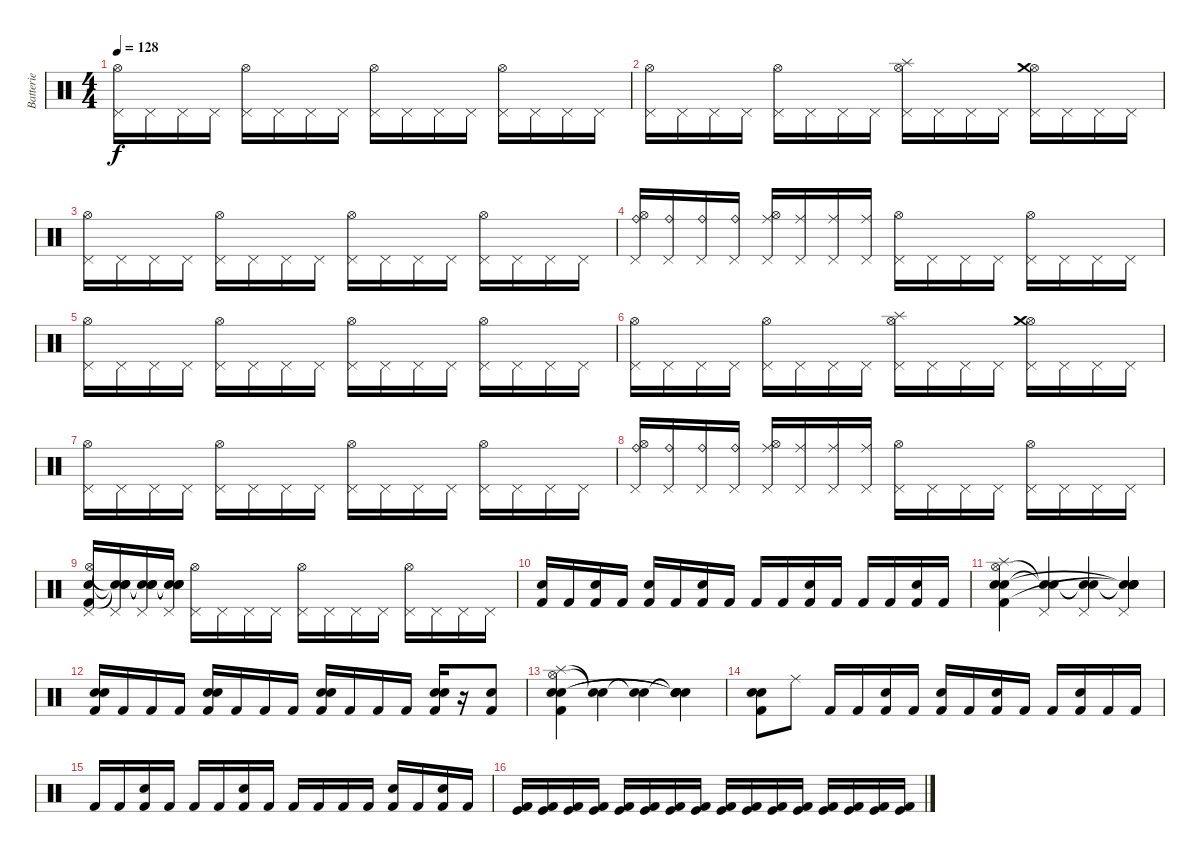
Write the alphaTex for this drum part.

\track ("Batterie" "Batterie") {instrument percussion}
\staff {score}
\articulation defaults
\ts (4 4)
\tempo 128
\clef neutral
\ks c
("Pedal Hi-Hat (hit)" "Hi-Hat (open)").16{dy f} "Pedal Hi-Hat (hit)".16 "Pedal Hi-Hat (hit)".16 "Pedal Hi-Hat (hit)".16 ("Pedal Hi-Hat (hit)" "Hi-Hat (open)").16 "Pedal Hi-Hat (hit)".16 "Pedal Hi-Hat (hit)".16 "Pedal Hi-Hat (hit)".16 ("Pedal Hi-Hat (hit)" "Hi-Hat (open)").16 "Pedal Hi-Hat (hit)".16 "Pedal Hi-Hat (hit)".16 "Pedal Hi-Hat (hit)".16 ("Pedal Hi-Hat (hit)" "Hi-Hat (open)").16 "Pedal Hi-Hat (hit)".16 "Pedal Hi-Hat (hit)".16 "Pedal Hi-Hat (hit)".16 |
("Pedal Hi-Hat (hit)" "Hi-Hat (open)").16 "Pedal Hi-Hat (hit)".16 "Pedal Hi-Hat (hit)".16 "Pedal Hi-Hat (hit)".16 ("Pedal Hi-Hat (hit)" "Hi-Hat (open)").16 "Pedal Hi-Hat (hit)".16 "Pedal Hi-Hat (hit)".16 "Pedal Hi-Hat (hit)".16 ("Pedal Hi-Hat (hit)" "Hi-Hat (open)" "Splash (hit)").16 "Pedal Hi-Hat (hit)".16 "Pedal Hi-Hat (hit)".16 "Pedal Hi-Hat (hit)".16 ("Pedal Hi-Hat (hit)" "Hi-Hat (open)" "Crash medium (hit)").16 "Pedal Hi-Hat (hit)".16 "Pedal Hi-Hat (hit)".16 "Pedal Hi-Hat (hit)".16 |
("Pedal Hi-Hat (hit)" "Hi-Hat (open)").16 "Pedal Hi-Hat (hit)".16 "Pedal Hi-Hat (hit)".16 "Pedal Hi-Hat (hit)".16 ("Pedal Hi-Hat (hit)" "Hi-Hat (open)").16 "Pedal Hi-Hat (hit)".16 "Pedal Hi-Hat (hit)".16 "Pedal Hi-Hat (hit)".16 ("Pedal Hi-Hat (hit)" "Hi-Hat (open)").16 "Pedal Hi-Hat (hit)".16 "Pedal Hi-Hat (hit)".16 "Pedal Hi-Hat (hit)".16 ("Pedal Hi-Hat (hit)" "Hi-Hat (open)").16 "Pedal Hi-Hat (hit)".16 "Pedal Hi-Hat (hit)".16 "Pedal Hi-Hat (hit)".16 |
("Ride (bell)" "Pedal Hi-Hat (hit)" "Hi-Hat (open)").16 ("Ride (bell)" "Pedal Hi-Hat (hit)").16 ("Ride (bell)" "Pedal Hi-Hat (hit)").16 ("Ride (bell)" "Pedal Hi-Hat (hit)").16 ("Ride (middle)" "Pedal Hi-Hat (hit)" "Hi-Hat (open)").16 ("Ride (middle)" "Pedal Hi-Hat (hit)").16 ("Ride (middle)" "Pedal Hi-Hat (hit)").16 ("Ride (middle)" "Pedal Hi-Hat (hit)").16 ("Pedal Hi-Hat (hit)" "Hi-Hat (open)").16 "Pedal Hi-Hat (hit)".16 "Pedal Hi-Hat (hit)".16 "Pedal Hi-Hat (hit)".16 ("Pedal Hi-Hat (hit)" "Hi-Hat (open)").16 "Pedal Hi-Hat (hit)".16 "Pedal Hi-Hat (hit)".16 "Pedal Hi-Hat (hit)".16 |
("Pedal Hi-Hat (hit)" "Hi-Hat (open)").16 "Pedal Hi-Hat (hit)".16 "Pedal Hi-Hat (hit)".16 "Pedal Hi-Hat (hit)".16 ("Pedal Hi-Hat (hit)" "Hi-Hat (open)").16 "Pedal Hi-Hat (hit)".16 "Pedal Hi-Hat (hit)".16 "Pedal Hi-Hat (hit)".16 ("Pedal Hi-Hat (hit)" "Hi-Hat (open)").16 "Pedal Hi-Hat (hit)".16 "Pedal Hi-Hat (hit)".16 "Pedal Hi-Hat (hit)".16 ("Pedal Hi-Hat (hit)" "Hi-Hat (open)").16 "Pedal Hi-Hat (hit)".16 "Pedal Hi-Hat (hit)".16 "Pedal Hi-Hat (hit)".16 |
("Pedal Hi-Hat (hit)" "Hi-Hat (open)").16 "Pedal Hi-Hat (hit)".16 "Pedal Hi-Hat (hit)".16 "Pedal Hi-Hat (hit)".16 ("Pedal Hi-Hat (hit)" "Hi-Hat (open)").16 "Pedal Hi-Hat (hit)".16 "Pedal Hi-Hat (hit)".16 "Pedal Hi-Hat (hit)".16 ("Pedal Hi-Hat (hit)" "Hi-Hat (open)" "Splash (hit)").16 "Pedal Hi-Hat (hit)".16 "Pedal Hi-Hat (hit)".16 "Pedal Hi-Hat (hit)".16 ("Pedal Hi-Hat (hit)" "Hi-Hat (open)" "Crash medium (hit)").16 "Pedal Hi-Hat (hit)".16 "Pedal Hi-Hat (hit)".16 "Pedal Hi-Hat (hit)".16 |
("Pedal Hi-Hat (hit)" "Hi-Hat (open)").16 "Pedal Hi-Hat (hit)".16 "Pedal Hi-Hat (hit)".16 "Pedal Hi-Hat (hit)".16 ("Pedal Hi-Hat (hit)" "Hi-Hat (open)").16 "Pedal Hi-Hat (hit)".16 "Pedal Hi-Hat (hit)".16 "Pedal Hi-Hat (hit)".16 ("Pedal Hi-Hat (hit)" "Hi-Hat (open)").16 "Pedal Hi-Hat (hit)".16 "Pedal Hi-Hat (hit)".16 "Pedal Hi-Hat (hit)".16 ("Pedal Hi-Hat (hit)" "Hi-Hat (open)").16 "Pedal Hi-Hat (hit)".16 "Pedal Hi-Hat (hit)".16 "Pedal Hi-Hat (hit)".16 |
("Ride (bell)" "Pedal Hi-Hat (hit)" "Hi-Hat (open)").16 ("Ride (bell)" "Pedal Hi-Hat (hit)").16 ("Ride (bell)" "Pedal Hi-Hat (hit)").16 ("Ride (bell)" "Pedal Hi-Hat (hit)").16 ("Ride (middle)" "Pedal Hi-Hat (hit)" "Hi-Hat (open)").16 ("Ride (middle)" "Pedal Hi-Hat (hit)").16 ("Ride (middle)" "Pedal Hi-Hat (hit)").16 ("Ride (middle)" "Pedal Hi-Hat (hit)").16 ("Pedal Hi-Hat (hit)" "Hi-Hat (open)").16 "Pedal Hi-Hat (hit)".16 "Pedal Hi-Hat (hit)".16 "Pedal Hi-Hat (hit)".16 ("Pedal Hi-Hat (hit)" "Hi-Hat (open)").16 "Pedal Hi-Hat (hit)".16 "Pedal Hi-Hat (hit)".16 "Pedal Hi-Hat (hit)".16 |
("Pedal Hi-Hat (hit)" "Hi-Hat (open)" "Snare (hit) 2" "Kick (hit) 2").16 ("Pedal Hi-Hat (hit)" "Snare (hit)"{t} "Snare (hit)"{t} "Snare (hit)"{t}).16 ("Pedal Hi-Hat (hit)" "Snare (hit)"{t} "Snare (hit)"{t} "Snare (hit)"{t}).16 ("Pedal Hi-Hat (hit)" "Snare (hit)"{t} "Snare (hit)"{t} "Snare (hit)"{t}).16 ("Pedal Hi-Hat (hit)" "Hi-Hat (open)").16 "Pedal Hi-Hat (hit)".16 "Pedal Hi-Hat (hit)".16 "Pedal Hi-Hat (hit)".16 ("Pedal Hi-Hat (hit)" "Hi-Hat (open)").16 "Pedal Hi-Hat (hit)".16 "Pedal Hi-Hat (hit)".16 "Pedal Hi-Hat (hit)".16 ("Pedal Hi-Hat (hit)" "Hi-Hat (open)").16 "Pedal Hi-Hat (hit)".16 "Pedal Hi-Hat (hit)".16 "Pedal Hi-Hat (hit)".16 |
("Electric Snare (hit)" "Kick (hit) 2").16 "Kick (hit) 2".16 ("Electric Snare (hit)" "Kick (hit) 2").16 "Kick (hit) 2".16 ("Electric Snare (hit)" "Kick (hit) 2").16 "Kick (hit) 2".16 ("Electric Snare (hit)" "Kick (hit) 2").16 "Kick (hit) 2".16 "Kick (hit) 2".16 "Kick (hit) 2".16 ("Electric Snare (hit)" "Kick (hit) 2").16 "Kick (hit) 2".16 "Kick (hit) 2".16 "Kick (hit) 2".16 ("Electric Snare (hit)" "Kick (hit) 2").16 "Kick (hit) 2".16 |
("Splash (hit)" "Hi-Hat (open)" "Snare (hit) 2" "Electric Snare (hit)" "Kick (hit) 2").4 ("Pedal Hi-Hat (hit)" "Snare (hit)"{t} "Snare (hit)"{t}).4 ("Pedal Hi-Hat (hit)" "Snare (hit)"{t} "Snare (hit)"{t}).4 ("Pedal Hi-Hat (hit)" "Snare (hit)"{t} "Snare (hit)"{t} "Snare (hit)"{t} "Snare (hit)"{t}).4 |
("Electric Snare (hit)" "Snare (hit) 2" "Kick (hit) 2").16 "Kick (hit) 2".16 "Kick (hit) 2".16 "Kick (hit) 2".16 ("Electric Snare (hit)" "Snare (hit) 2" "Kick (hit) 2").16 "Kick (hit) 2".16 "Kick (hit) 2".16 "Kick (hit) 2".16 ("Electric Snare (hit)" "Snare (hit) 2" "Kick (hit) 2").16 "Kick (hit) 2".16 "Kick (hit) 2".16 "Kick (hit) 2".16 ("Electric Snare (hit)" "Snare (hit) 2" "Kick (hit) 2").16 r.16 ("Electric Snare (hit)" "Kick (hit) 2").8 |
("Splash (hit)" "Hi-Hat (open)" "Snare (hit) 2" "Electric Snare (hit)" "Kick (hit) 2").4 ("Snare (hit)"{t} "Snare (hit)"{t}).4 ("Snare (hit)"{t} "Snare (hit)"{t}).4 ("Snare (hit)"{t} "Snare (hit)"{t} "Snare (hit)"{t} "Snare (hit)"{t}).4 |
("Snare (hit) 2" "Electric Snare (hit)" "Kick (hit) 2").8 "Ride (middle)".8 "Kick (hit) 2".16 "Kick (hit) 2".16 ("Electric Snare (hit)" "Kick (hit) 2").16 "Kick (hit) 2".16 ("Electric Snare (hit)" "Kick (hit) 2").16 "Kick (hit) 2".16 ("Electric Snare (hit)" "Kick (hit) 2").16 "Kick (hit) 2".16 "Kick (hit) 2".16 ("Electric Snare (hit)" "Kick (hit) 2").16 "Kick (hit) 2".16 "Kick (hit) 2".16 |
"Kick (hit) 2".16 "Kick (hit) 2".16 ("Electric Snare (hit)" "Kick (hit) 2").16 "Kick (hit) 2".16 "Kick (hit) 2".16 "Kick (hit) 2".16 ("Electric Snare (hit)" "Kick (hit) 2").16 "Kick (hit) 2".16 "Kick (hit) 2".16 "Kick (hit) 2".16 "Kick (hit) 2".16 "Kick (hit) 2".16 ("Electric Snare (hit)" "Kick (hit) 2").16 "Kick (hit) 2".16 ("Electric Snare (hit)" "Kick (hit) 2").16 "Kick (hit) 2".16 |
("Kick (hit)" "Kick (hit) 2").16 ("Kick (hit)" "Kick (hit) 2").16 ("Kick (hit)" "Kick (hit) 2").16 ("Kick (hit)" "Kick (hit) 2").16 ("Kick (hit)" "Kick (hit) 2").16 ("Kick (hit)" "Kick (hit) 2").16 ("Kick (hit)" "Kick (hit) 2").16 ("Kick (hit)" "Kick (hit) 2").16 ("Kick (hit)" "Kick (hit) 2").16 ("Kick (hit)" "Kick (hit) 2").16 ("Kick (hit)" "Kick (hit) 2").16 ("Kick (hit)" "Kick (hit) 2").16 ("Kick (hit)" "Kick (hit) 2").16 ("Kick (hit)" "Kick (hit) 2").16 ("Kick (hit)" "Kick (hit) 2").16 ("Kick (hit)" "Kick (hit) 2").16
